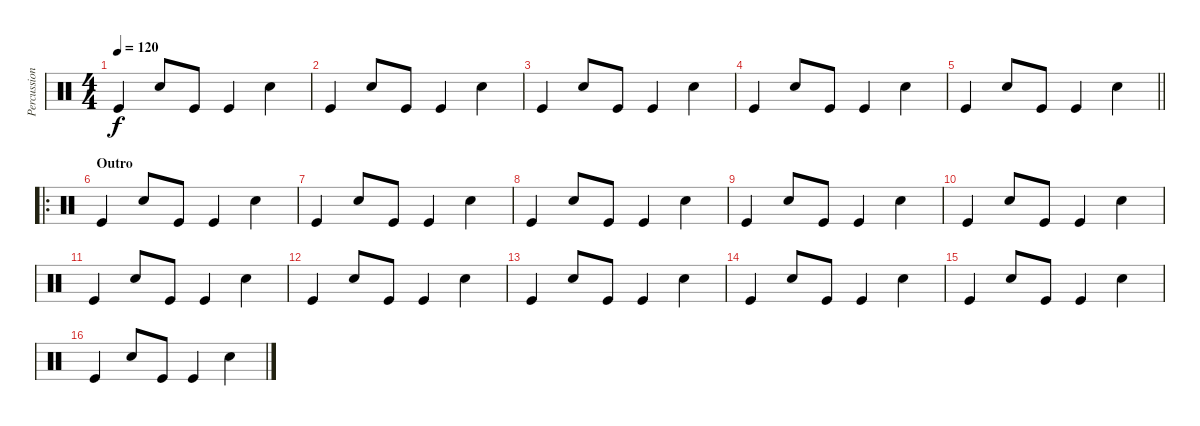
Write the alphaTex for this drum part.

\track ("Percussion" "Percussion") {instrument percussion}
\staff {score}
\articulation defaults
\ts (4 4)
\tempo 120
\clef neutral
\ks c "Kick (hit)".4{dy f} "Electric Snare (hit)".8 "Kick (hit)".8 "Kick (hit)".4 "Electric Snare (hit)".4
|
"Kick (hit)".4 "Electric Snare (hit)".8 "Kick (hit)".8 "Kick (hit)".4 "Electric Snare (hit)".4 |
"Kick (hit)".4 "Electric Snare (hit)".8 "Kick (hit)".8 "Kick (hit)".4 "Electric Snare (hit)".4 |
"Kick (hit)".4 "Electric Snare (hit)".8 "Kick (hit)".8 "Kick (hit)".4 "Electric Snare (hit)".4 |
\barLineRight lightlight "Kick (hit)".4 "Electric Snare (hit)".8 "Kick (hit)".8 "Kick (hit)".4 "Electric Snare (hit)".4
|
\ro
\section ("" "Outro")
"Kick (hit)".4 "Electric Snare (hit)".8 "Kick (hit)".8 "Kick (hit)".4 "Electric Snare (hit)".4 |
"Kick (hit)".4 "Electric Snare (hit)".8 "Kick (hit)".8 "Kick (hit)".4 "Electric Snare (hit)".4 |
"Kick (hit)".4 "Electric Snare (hit)".8 "Kick (hit)".8 "Kick (hit)".4 "Electric Snare (hit)".4 |
"Kick (hit)".4 "Electric Snare (hit)".8 "Kick (hit)".8 "Kick (hit)".4 "Electric Snare (hit)".4 |
"Kick (hit)".4 "Electric Snare (hit)".8 "Kick (hit)".8 "Kick (hit)".4 "Electric Snare (hit)".4 |
"Kick (hit)".4 "Electric Snare (hit)".8 "Kick (hit)".8 "Kick (hit)".4 "Electric Snare (hit)".4 |
"Kick (hit)".4 "Electric Snare (hit)".8 "Kick (hit)".8 "Kick (hit)".4 "Electric Snare (hit)".4 |
"Kick (hit)".4 "Electric Snare (hit)".8 "Kick (hit)".8 "Kick (hit)".4 "Electric Snare (hit)".4 |
"Kick (hit)".4 "Electric Snare (hit)".8 "Kick (hit)".8 "Kick (hit)".4 "Electric Snare (hit)".4 |
"Kick (hit)".4 "Electric Snare (hit)".8 "Kick (hit)".8 "Kick (hit)".4 "Electric Snare (hit)".4 |
"Kick (hit)".4 "Electric Snare (hit)".8 "Kick (hit)".8 "Kick (hit)".4 "Electric Snare (hit)".4
